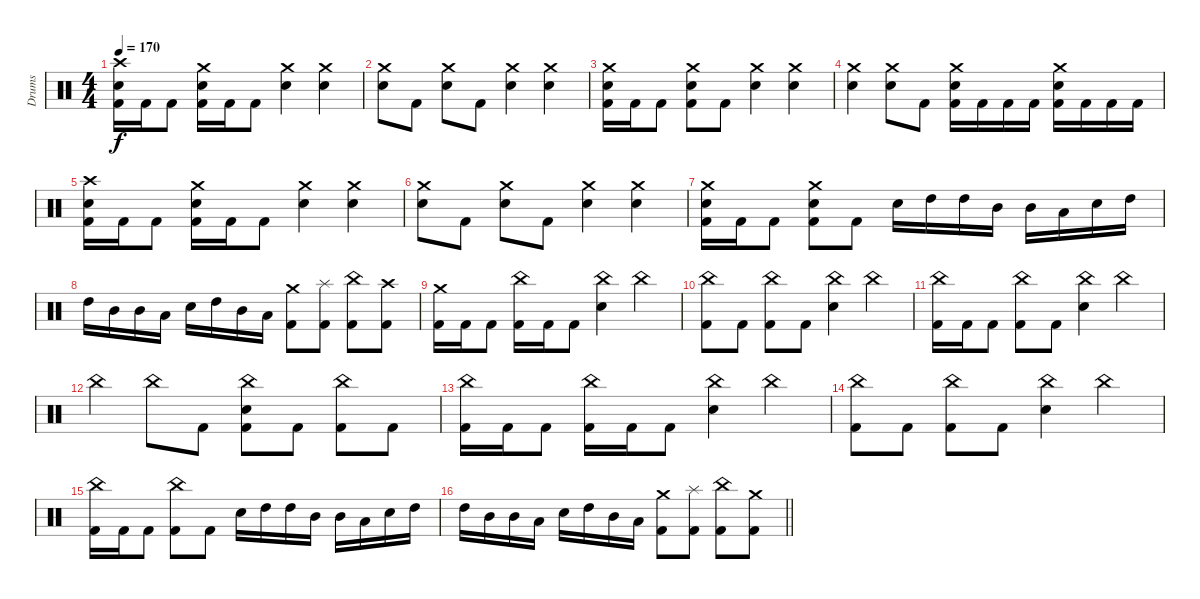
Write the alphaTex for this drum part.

\track ("Drums" "Drums") {instrument percussion}
\staff {score}
\articulation defaults
\ts (4 4)
\tempo 170
\clef neutral
\ks c
("Crash high (hit)" "Electric Snare (hit)" "Kick (hit) 2").16{dy f} "Kick (hit) 2".16 "Kick (hit) 2".8 ("Crash medium (hit)" "Electric Snare (hit)" "Kick (hit) 2").16 "Kick (hit) 2".16 "Kick (hit) 2".8 ("Crash medium (hit)" "Electric Snare (hit)").4 ("Crash medium (hit)" "Electric Snare (hit)").4 |
("Crash medium (hit)" "Electric Snare (hit)").8 "Kick (hit) 2".8 ("Crash medium (hit)" "Electric Snare (hit)").8 "Kick (hit) 2".8 ("Crash medium (hit)" "Electric Snare (hit)").4 ("Crash medium (hit)" "Electric Snare (hit)").4 |
("Crash medium (hit)" "Electric Snare (hit)" "Kick (hit) 2").16 "Kick (hit) 2".16 "Kick (hit) 2".8 ("Crash medium (hit)" "Electric Snare (hit)" "Kick (hit) 2").8 "Kick (hit) 2".8 ("Crash medium (hit)" "Electric Snare (hit)").4 ("Crash medium (hit)" "Electric Snare (hit)").4 |
("Crash medium (hit)" "Electric Snare (hit)").4 ("Crash medium (hit)" "Electric Snare (hit)").8 "Kick (hit) 2".8 ("Crash medium (hit)" "Electric Snare (hit)" "Kick (hit) 2").16 "Kick (hit) 2".16 "Kick (hit) 2".16 "Kick (hit) 2".16 ("Crash medium (hit)" "Electric Snare (hit)" "Kick (hit) 2").16 "Kick (hit) 2".16 "Kick (hit) 2".16 "Kick (hit) 2".16 |
("Crash high (hit)" "Electric Snare (hit)" "Kick (hit) 2").16 "Kick (hit) 2".16 "Kick (hit) 2".8 ("Crash medium (hit)" "Electric Snare (hit)" "Kick (hit) 2").16 "Kick (hit) 2".16 "Kick (hit) 2".8 ("Crash medium (hit)" "Electric Snare (hit)").4 ("Crash medium (hit)" "Electric Snare (hit)").4 |
("Crash medium (hit)" "Electric Snare (hit)").8 "Kick (hit) 2".8 ("Crash medium (hit)" "Electric Snare (hit)").8 "Kick (hit) 2".8 ("Crash medium (hit)" "Electric Snare (hit)").4 ("Crash medium (hit)" "Electric Snare (hit)").4 |
("Crash medium (hit)" "Electric Snare (hit)" "Kick (hit) 2").16 "Kick (hit) 2".16 "Kick (hit) 2".8 ("Crash medium (hit)" "Electric Snare (hit)" "Kick (hit) 2").8 "Kick (hit) 2".8 "Electric Snare (hit)".16 "High Tom (hit)".16 "High Tom (hit)".16 "Mid Tom (hit)".16 "Mid Tom (hit)".16 "Low Tom (hit)".16 "Electric Snare (hit)".16 "High Tom (hit)".16 |
"High Tom (hit)".16 "Mid Tom (hit)".16 "Mid Tom (hit)".16 "Low Tom (hit)".16 "Electric Snare (hit)".16 "High Tom (hit)".16 "Mid Tom (hit)".16 "Low Tom (hit)".16 ("Crash medium (hit)" "Kick (hit) 2").8 ("Splash (hit)" "Kick (hit) 2").8 ("China (hit)" "Kick (hit) 2").8 ("Crash high (hit)" "Kick (hit) 2").8 |
("Crash medium (hit)" "Kick (hit) 2").16 "Kick (hit) 2".16 "Kick (hit) 2".8 ("China (hit)" "Kick (hit) 2").16 "Kick (hit) 2".16 "Kick (hit) 2".8 ("China (hit)" "Electric Snare (hit)").4 "China (hit)".4 |
("China (hit)" "Kick (hit) 2").8 "Kick (hit) 2".8 ("China (hit)" "Kick (hit) 2").8 "Kick (hit) 2".8 ("China (hit)" "Electric Snare (hit)").4 "China (hit)".4 |
("China (hit)" "Kick (hit) 2").16 "Kick (hit) 2".16 "Kick (hit) 2".8 ("China (hit)" "Kick (hit) 2").8 "Kick (hit) 2".8 ("China (hit)" "Electric Snare (hit)").4 "China (hit)".4 |
"China (hit)".4 "China (hit)".8 "Kick (hit) 2".8 ("China (hit)" "Electric Snare (hit)" "Kick (hit) 2").8 "Kick (hit) 2".8 ("China (hit)" "Kick (hit) 2").8 "Kick (hit) 2".8 |
("China (hit)" "Kick (hit) 2").16 "Kick (hit) 2".16 "Kick (hit) 2".8 ("China (hit)" "Kick (hit) 2").16 "Kick (hit) 2".16 "Kick (hit) 2".8 ("China (hit)" "Electric Snare (hit)").4 "China (hit)".4 |
("China (hit)" "Kick (hit) 2").8 "Kick (hit) 2".8 ("China (hit)" "Kick (hit) 2").8 "Kick (hit) 2".8 ("China (hit)" "Electric Snare (hit)").4 "China (hit)".4 |
("China (hit)" "Kick (hit) 2").16 "Kick (hit) 2".16 "Kick (hit) 2".8 ("China (hit)" "Kick (hit) 2").8 "Kick (hit) 2".8 "Electric Snare (hit)".16 "High Tom (hit)".16 "High Tom (hit)".16 "Mid Tom (hit)".16 "Mid Tom (hit)".16 "Low Tom (hit)".16 "Electric Snare (hit)".16 "High Tom (hit)".16 |
\barLineRight lightlight "High Tom (hit)".16 "Mid Tom (hit)".16 "Mid Tom (hit)".16 "Low Tom (hit)".16 "Electric Snare (hit)".16 "High Tom (hit)".16 "Mid Tom (hit)".16 "Low Tom (hit)".16
("Crash medium (hit)" "Kick (hit) 2").8 ("Splash (hit)" "Kick (hit) 2").8 ("China (hit)" "Kick (hit) 2").8 ("Crash medium (hit)" "Kick (hit) 2").8
